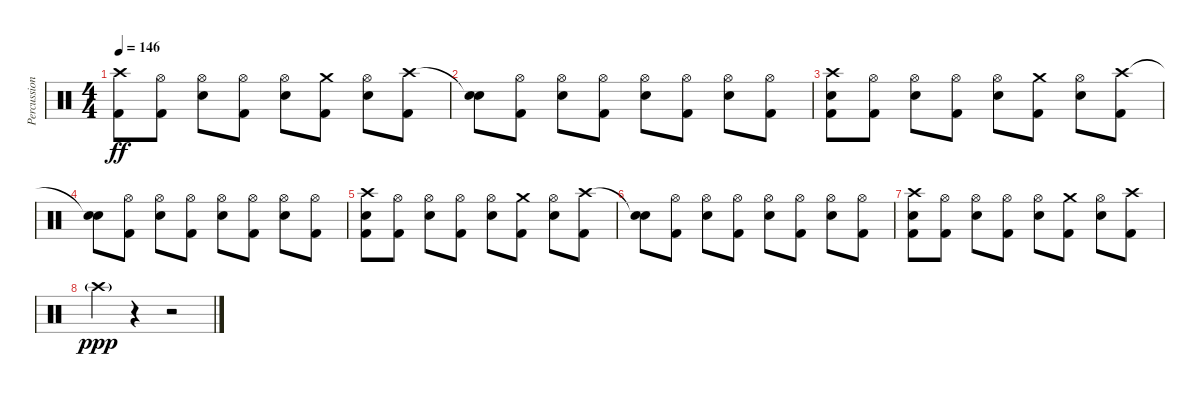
\track ("Percussion" "Percussion") {instrument percussion}
\staff {score}
\articulation defaults
\ts (4 4)
\tempo 146
\clef neutral
\ks c
("Crash high (hit)" "Kick (hit) 2").8{dy ff} ("Hi-Hat (open)" "Kick (hit) 2").8 ("Hi-Hat (open)" "Snare (hit) 2").8 ("Hi-Hat (open)" "Kick (hit) 2").8 ("Hi-Hat (open)" "Snare (hit) 2").8 ("Crash medium (hit)" "Kick (hit) 2").8 ("Hi-Hat (open)" "Snare (hit) 2").8 ("Crash high (hit)" "Kick (hit) 2").8 |
("Snare (hit)"{t} "Snare (hit) 2").8 ("Hi-Hat (open)" "Kick (hit) 2").8 ("Hi-Hat (open)" "Snare (hit) 2").8 ("Hi-Hat (open)" "Kick (hit) 2").8 ("Hi-Hat (open)" "Snare (hit) 2").8 ("Hi-Hat (open)" "Kick (hit) 2").8 ("Hi-Hat (open)" "Snare (hit) 2").8 ("Hi-Hat (open)" "Kick (hit) 2").8 |
("Crash high (hit)" "Snare (hit) 2" "Kick (hit) 2").8 ("Hi-Hat (open)" "Kick (hit) 2").8 ("Hi-Hat (open)" "Snare (hit) 2").8 ("Hi-Hat (open)" "Kick (hit) 2").8 ("Hi-Hat (open)" "Snare (hit) 2").8 ("Crash medium (hit)" "Kick (hit) 2").8 ("Hi-Hat (open)" "Snare (hit) 2").8 ("Crash high (hit)" "Kick (hit) 2").8 |
("Snare (hit)"{t} "Snare (hit) 2").8 ("Hi-Hat (open)" "Kick (hit) 2").8 ("Hi-Hat (open)" "Snare (hit) 2").8 ("Hi-Hat (open)" "Kick (hit) 2").8 ("Hi-Hat (open)" "Snare (hit) 2").8 ("Hi-Hat (open)" "Kick (hit) 2").8 ("Hi-Hat (open)" "Snare (hit) 2").8 ("Hi-Hat (open)" "Kick (hit) 2").8 |
("Crash high (hit)" "Snare (hit) 2" "Kick (hit) 2").8 ("Hi-Hat (open)" "Kick (hit) 2").8 ("Hi-Hat (open)" "Snare (hit) 2").8 ("Hi-Hat (open)" "Kick (hit) 2").8 ("Hi-Hat (open)" "Snare (hit) 2").8 ("Crash medium (hit)" "Kick (hit) 2").8 ("Hi-Hat (open)" "Snare (hit) 2").8 ("Crash high (hit)" "Kick (hit) 2").8 |
("Snare (hit)"{t} "Snare (hit) 2").8 ("Hi-Hat (open)" "Kick (hit) 2").8 ("Hi-Hat (open)" "Snare (hit) 2").8 ("Hi-Hat (open)" "Kick (hit) 2").8 ("Hi-Hat (open)" "Snare (hit) 2").8 ("Hi-Hat (open)" "Kick (hit) 2").8 ("Hi-Hat (open)" "Snare (hit) 2").8 ("Hi-Hat (open)" "Kick (hit) 2").8 |
("Crash high (hit)" "Snare (hit) 2" "Kick (hit) 2").8 ("Hi-Hat (open)" "Kick (hit) 2").8 ("Hi-Hat (open)" "Snare (hit) 2").8 ("Hi-Hat (open)" "Kick (hit) 2").8 ("Hi-Hat (open)" "Snare (hit) 2").8 ("Crash medium (hit)" "Kick (hit) 2").8 ("Hi-Hat (open)" "Snare (hit) 2").8 ("Crash high (hit)" "Kick (hit) 2").8 |
"Crash high (hit)"{g}.4{dy ppp} r.4 r.2
